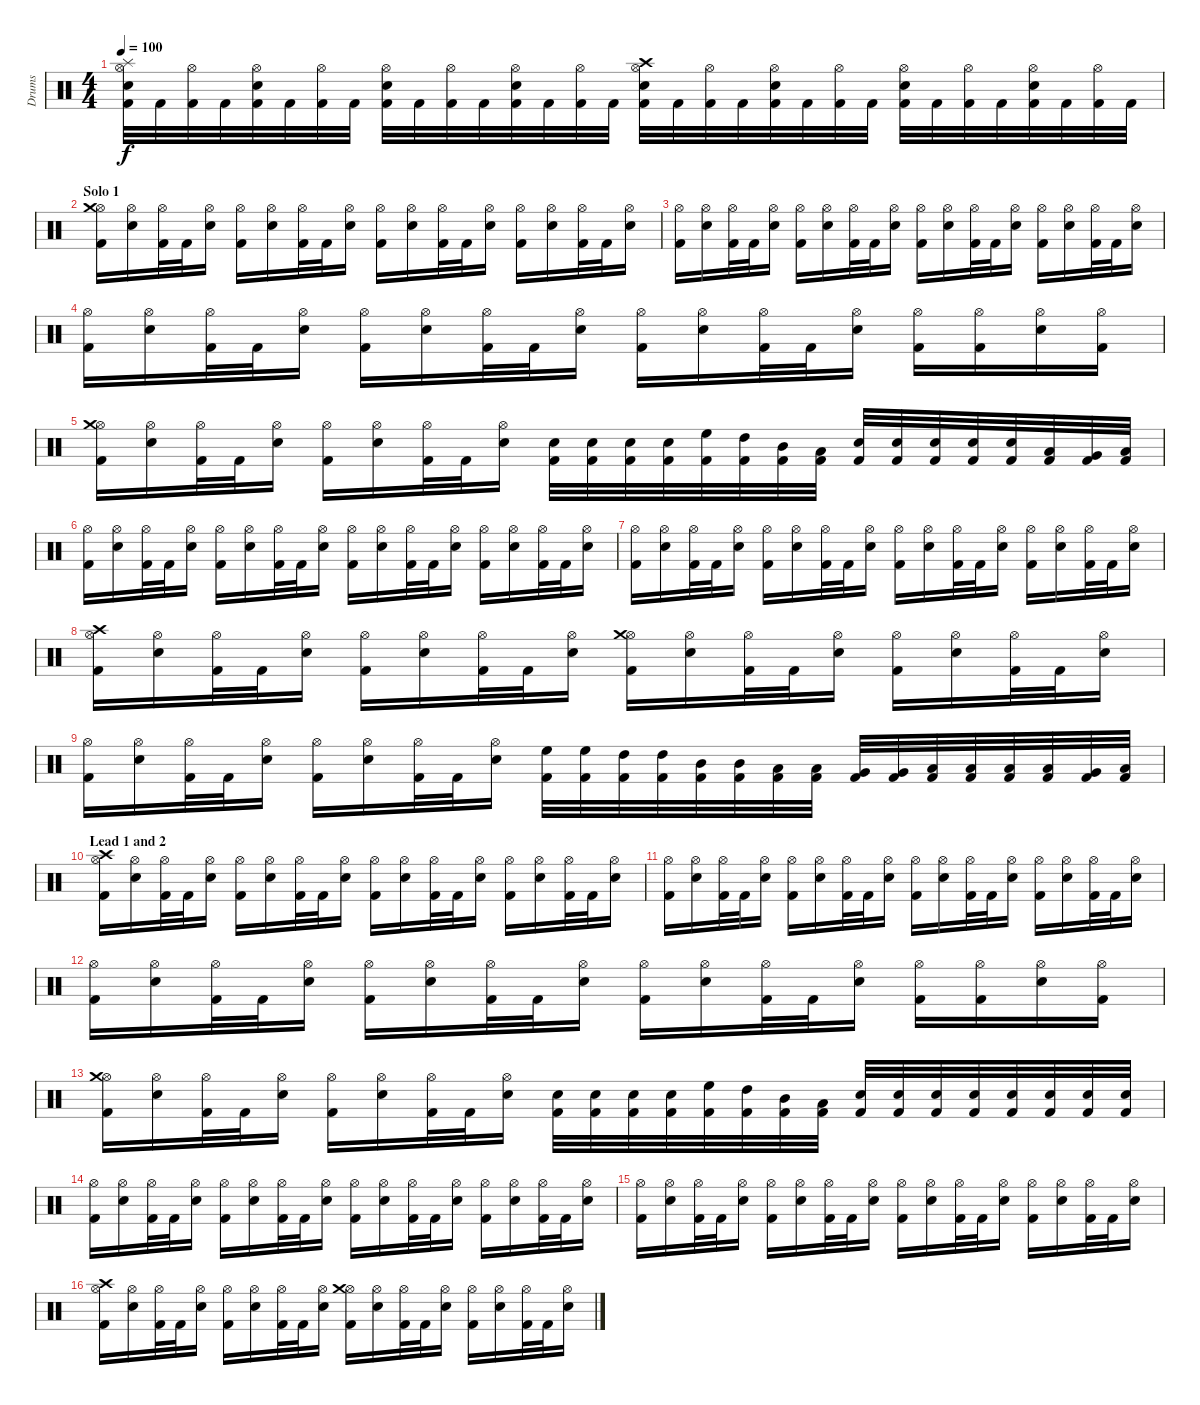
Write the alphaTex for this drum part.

\track ("Drums" "Drums") {instrument percussion}
\staff {score}
\articulation defaults
\ts (4 4)
\tempo 100
\clef neutral
\ks c
("Kick (hit) 2" "Electric Snare (hit)" "Hi-Hat (open)" "Splash (hit)").32{dy f} "Kick (hit) 2".32 ("Kick (hit) 2" "Hi-Hat (open)").32 "Kick (hit) 2".32 ("Kick (hit) 2" "Electric Snare (hit)" "Hi-Hat (open)").32 "Kick (hit) 2".32 ("Kick (hit) 2" "Hi-Hat (open)").32 "Kick (hit) 2".32 ("Kick (hit) 2" "Electric Snare (hit)" "Hi-Hat (open)").32 "Kick (hit) 2".32 ("Kick (hit) 2" "Hi-Hat (open)").32 "Kick (hit) 2".32 ("Kick (hit) 2" "Electric Snare (hit)" "Hi-Hat (open)").32 "Kick (hit) 2".32 ("Kick (hit) 2" "Hi-Hat (open)").32 "Kick (hit) 2".32 ("Kick (hit) 2" "Electric Snare (hit)" "Hi-Hat (open)" "Crash high (hit)").32 "Kick (hit) 2".32 ("Kick (hit) 2" "Hi-Hat (open)").32 "Kick (hit) 2".32 ("Kick (hit) 2" "Electric Snare (hit)" "Hi-Hat (open)").32 "Kick (hit) 2".32 ("Kick (hit) 2" "Hi-Hat (open)").32 "Kick (hit) 2".32 ("Kick (hit) 2" "Electric Snare (hit)" "Hi-Hat (open)").32 "Kick (hit) 2".32 ("Kick (hit) 2" "Hi-Hat (open)").32 "Kick (hit) 2".32 ("Kick (hit) 2" "Electric Snare (hit)" "Hi-Hat (open)").32 "Kick (hit) 2".32 ("Kick (hit) 2" "Hi-Hat (open)").32 "Kick (hit) 2".32 |
\section ("" "Solo 1")
("Kick (hit) 2" "Hi-Hat (open)" "Crash medium (hit)").16 ("Electric Snare (hit)" "Hi-Hat (open)").16 ("Kick (hit) 2" "Hi-Hat (open)").32 "Kick (hit) 2".32 ("Electric Snare (hit)" "Hi-Hat (open)").16 ("Kick (hit) 2" "Hi-Hat (open)").16 ("Electric Snare (hit)" "Hi-Hat (open)").16 ("Kick (hit) 2" "Hi-Hat (open)").32 "Kick (hit) 2".32 ("Electric Snare (hit)" "Hi-Hat (open)").16 ("Kick (hit) 2" "Hi-Hat (open)").16 ("Electric Snare (hit)" "Hi-Hat (open)").16 ("Kick (hit) 2" "Hi-Hat (open)").32 "Kick (hit) 2".32 ("Electric Snare (hit)" "Hi-Hat (open)").16 ("Kick (hit) 2" "Hi-Hat (open)").16 ("Electric Snare (hit)" "Hi-Hat (open)").16 ("Kick (hit) 2" "Hi-Hat (open)").32 "Kick (hit) 2".32 ("Electric Snare (hit)" "Hi-Hat (open)").16 |
("Kick (hit) 2" "Hi-Hat (open)").16 ("Electric Snare (hit)" "Hi-Hat (open)").16 ("Kick (hit) 2" "Hi-Hat (open)").32 "Kick (hit) 2".32 ("Electric Snare (hit)" "Hi-Hat (open)").16 ("Kick (hit) 2" "Hi-Hat (open)").16 ("Electric Snare (hit)" "Hi-Hat (open)").16 ("Kick (hit) 2" "Hi-Hat (open)").32 "Kick (hit) 2".32 ("Electric Snare (hit)" "Hi-Hat (open)").16 ("Kick (hit) 2" "Hi-Hat (open)").16 ("Electric Snare (hit)" "Hi-Hat (open)").16 ("Kick (hit) 2" "Hi-Hat (open)").32 "Kick (hit) 2".32 ("Electric Snare (hit)" "Hi-Hat (open)").16 ("Kick (hit) 2" "Hi-Hat (open)").16 ("Electric Snare (hit)" "Hi-Hat (open)").16 ("Kick (hit) 2" "Hi-Hat (open)").32 "Kick (hit) 2".32 ("Electric Snare (hit)" "Hi-Hat (open)").16 |
("Kick (hit) 2" "Hi-Hat (open)").16 ("Electric Snare (hit)" "Hi-Hat (open)").16 ("Kick (hit) 2" "Hi-Hat (open)").32 "Kick (hit) 2".32 ("Electric Snare (hit)" "Hi-Hat (open)").16 ("Kick (hit) 2" "Hi-Hat (open)").16 ("Electric Snare (hit)" "Hi-Hat (open)").16 ("Kick (hit) 2" "Hi-Hat (open)").32 "Kick (hit) 2".32 ("Electric Snare (hit)" "Hi-Hat (open)").16 ("Kick (hit) 2" "Hi-Hat (open)").16 ("Electric Snare (hit)" "Hi-Hat (open)").16 ("Kick (hit) 2" "Hi-Hat (open)").32 "Kick (hit) 2".32 ("Electric Snare (hit)" "Hi-Hat (open)").16 ("Kick (hit) 2" "Hi-Hat (open)").16 ("Kick (hit) 2" "Hi-Hat (open)").16 ("Electric Snare (hit)" "Hi-Hat (open)").16 ("Kick (hit) 2" "Hi-Hat (open)").16 |
("Kick (hit) 2" "Hi-Hat (open)" "Crash medium (hit)").16 ("Electric Snare (hit)" "Hi-Hat (open)").16 ("Kick (hit) 2" "Hi-Hat (open)").32 "Kick (hit) 2".32 ("Electric Snare (hit)" "Hi-Hat (open)").16 ("Kick (hit) 2" "Hi-Hat (open)").16 ("Electric Snare (hit)" "Hi-Hat (open)").16 ("Kick (hit) 2" "Hi-Hat (open)").32 "Kick (hit) 2".32 ("Electric Snare (hit)" "Hi-Hat (open)").16 ("Kick (hit) 2" "Electric Snare (hit)").32 ("Kick (hit) 2" "Electric Snare (hit)").32 ("Kick (hit) 2" "Electric Snare (hit)").32 ("Kick (hit) 2" "Electric Snare (hit)").32 ("Kick (hit) 2" "High Floor Tom (hit)").32 ("Kick (hit) 2" "High Tom (hit)").32 ("Kick (hit) 2" "Mid Tom (hit)").32 ("Kick (hit) 2" "Low Tom (hit)").32 ("Kick (hit) 2" "Electric Snare (hit)").32 ("Kick (hit) 2" "Electric Snare (hit)").32 ("Kick (hit) 2" "Electric Snare (hit)").32 ("Kick (hit) 2" "Electric Snare (hit)").32 ("Kick (hit) 2" "Electric Snare (hit)").32 ("Kick (hit) 2" "Low Tom (hit)").32 ("Kick (hit) 2" "Very Low Tom (hit)").32 ("Kick (hit) 2" "Low Floor Tom (hit)").32 |
("Kick (hit) 2" "Hi-Hat (open)").16 ("Electric Snare (hit)" "Hi-Hat (open)").16 ("Kick (hit) 2" "Hi-Hat (open)").32 "Kick (hit) 2".32 ("Electric Snare (hit)" "Hi-Hat (open)").16 ("Kick (hit) 2" "Hi-Hat (open)").16 ("Electric Snare (hit)" "Hi-Hat (open)").16 ("Kick (hit) 2" "Hi-Hat (open)").32 "Kick (hit) 2".32 ("Electric Snare (hit)" "Hi-Hat (open)").16 ("Kick (hit) 2" "Hi-Hat (open)").16 ("Electric Snare (hit)" "Hi-Hat (open)").16 ("Kick (hit) 2" "Hi-Hat (open)").32 "Kick (hit) 2".32 ("Electric Snare (hit)" "Hi-Hat (open)").16 ("Kick (hit) 2" "Hi-Hat (open)").16 ("Electric Snare (hit)" "Hi-Hat (open)").16 ("Kick (hit) 2" "Hi-Hat (open)").32 "Kick (hit) 2".32 ("Electric Snare (hit)" "Hi-Hat (open)").16 |
("Kick (hit) 2" "Hi-Hat (open)").16 ("Electric Snare (hit)" "Hi-Hat (open)").16 ("Kick (hit) 2" "Hi-Hat (open)").32 "Kick (hit) 2".32 ("Electric Snare (hit)" "Hi-Hat (open)").16 ("Kick (hit) 2" "Hi-Hat (open)").16 ("Electric Snare (hit)" "Hi-Hat (open)").16 ("Kick (hit) 2" "Hi-Hat (open)").32 "Kick (hit) 2".32 ("Electric Snare (hit)" "Hi-Hat (open)").16 ("Kick (hit) 2" "Hi-Hat (open)").16 ("Electric Snare (hit)" "Hi-Hat (open)").16 ("Kick (hit) 2" "Hi-Hat (open)").32 "Kick (hit) 2".32 ("Electric Snare (hit)" "Hi-Hat (open)").16 ("Kick (hit) 2" "Hi-Hat (open)").16 ("Electric Snare (hit)" "Hi-Hat (open)").16 ("Kick (hit) 2" "Hi-Hat (open)").32 "Kick (hit) 2".32 ("Electric Snare (hit)" "Hi-Hat (open)").16 |
("Kick (hit) 2" "Hi-Hat (open)" "Crash high (hit)").16 ("Electric Snare (hit)" "Hi-Hat (open)").16 ("Kick (hit) 2" "Hi-Hat (open)").32 "Kick (hit) 2".32 ("Electric Snare (hit)" "Hi-Hat (open)").16 ("Kick (hit) 2" "Hi-Hat (open)").16 ("Electric Snare (hit)" "Hi-Hat (open)").16 ("Kick (hit) 2" "Hi-Hat (open)").32 "Kick (hit) 2".32 ("Electric Snare (hit)" "Hi-Hat (open)").16 ("Kick (hit) 2" "Hi-Hat (open)" "Crash medium (hit)").16 ("Electric Snare (hit)" "Hi-Hat (open)").16 ("Kick (hit) 2" "Hi-Hat (open)").32 "Kick (hit) 2".32 ("Electric Snare (hit)" "Hi-Hat (open)").16 ("Kick (hit) 2" "Hi-Hat (open)").16 ("Electric Snare (hit)" "Hi-Hat (open)").16 ("Kick (hit) 2" "Hi-Hat (open)").32 "Kick (hit) 2".32 ("Electric Snare (hit)" "Hi-Hat (open)").16 |
("Kick (hit) 2" "Hi-Hat (open)").16 ("Electric Snare (hit)" "Hi-Hat (open)").16 ("Kick (hit) 2" "Hi-Hat (open)").32 "Kick (hit) 2".32 ("Electric Snare (hit)" "Hi-Hat (open)").16 ("Kick (hit) 2" "Hi-Hat (open)").16 ("Electric Snare (hit)" "Hi-Hat (open)").16 ("Kick (hit) 2" "Hi-Hat (open)").32 "Kick (hit) 2".32 ("Electric Snare (hit)" "Hi-Hat (open)").16 ("Kick (hit) 2" "High Floor Tom (hit)").32 ("Kick (hit) 2" "High Floor Tom (hit)").32 ("Kick (hit) 2" "High Tom (hit)").32 ("Kick (hit) 2" "High Tom (hit)").32 ("Kick (hit) 2" "Mid Tom (hit)").32 ("Kick (hit) 2" "Mid Tom (hit)").32 ("Kick (hit) 2" "Low Tom (hit)").32 ("Kick (hit) 2" "Low Tom (hit)").32 ("Kick (hit) 2" "Very Low Tom (hit)").32 ("Kick (hit) 2" "Very Low Tom (hit)").32 ("Kick (hit) 2" "Low Floor Tom (hit)").32 ("Kick (hit) 2" "Low Floor Tom (hit)").32 ("Kick (hit) 2" "Low Tom (hit)").32 ("Kick (hit) 2" "Low Tom (hit)").32 ("Kick (hit) 2" "Very Low Tom (hit)").32 ("Kick (hit) 2" "Low Floor Tom (hit)").32 |
\section ("" "Lead 1 and 2")
("Kick (hit) 2" "Hi-Hat (open)" "Crash high (hit)").16 ("Electric Snare (hit)" "Hi-Hat (open)").16 ("Kick (hit) 2" "Hi-Hat (open)").32 "Kick (hit) 2".32 ("Electric Snare (hit)" "Hi-Hat (open)").16 ("Kick (hit) 2" "Hi-Hat (open)").16 ("Electric Snare (hit)" "Hi-Hat (open)").16 ("Kick (hit) 2" "Hi-Hat (open)").32 "Kick (hit) 2".32 ("Electric Snare (hit)" "Hi-Hat (open)").16 ("Kick (hit) 2" "Hi-Hat (open)").16 ("Electric Snare (hit)" "Hi-Hat (open)").16 ("Kick (hit) 2" "Hi-Hat (open)").32 "Kick (hit) 2".32 ("Electric Snare (hit)" "Hi-Hat (open)").16 ("Kick (hit) 2" "Hi-Hat (open)").16 ("Electric Snare (hit)" "Hi-Hat (open)").16 ("Kick (hit) 2" "Hi-Hat (open)").32 "Kick (hit) 2".32 ("Electric Snare (hit)" "Hi-Hat (open)").16 |
("Kick (hit) 2" "Hi-Hat (open)").16 ("Electric Snare (hit)" "Hi-Hat (open)").16 ("Kick (hit) 2" "Hi-Hat (open)").32 "Kick (hit) 2".32 ("Electric Snare (hit)" "Hi-Hat (open)").16 ("Kick (hit) 2" "Hi-Hat (open)").16 ("Electric Snare (hit)" "Hi-Hat (open)").16 ("Kick (hit) 2" "Hi-Hat (open)").32 "Kick (hit) 2".32 ("Electric Snare (hit)" "Hi-Hat (open)").16 ("Kick (hit) 2" "Hi-Hat (open)").16 ("Electric Snare (hit)" "Hi-Hat (open)").16 ("Kick (hit) 2" "Hi-Hat (open)").32 "Kick (hit) 2".32 ("Electric Snare (hit)" "Hi-Hat (open)").16 ("Kick (hit) 2" "Hi-Hat (open)").16 ("Electric Snare (hit)" "Hi-Hat (open)").16 ("Kick (hit) 2" "Hi-Hat (open)").32 "Kick (hit) 2".32 ("Electric Snare (hit)" "Hi-Hat (open)").16 |
("Kick (hit) 2" "Hi-Hat (open)").16 ("Electric Snare (hit)" "Hi-Hat (open)").16 ("Kick (hit) 2" "Hi-Hat (open)").32 "Kick (hit) 2".32 ("Electric Snare (hit)" "Hi-Hat (open)").16 ("Kick (hit) 2" "Hi-Hat (open)").16 ("Electric Snare (hit)" "Hi-Hat (open)").16 ("Kick (hit) 2" "Hi-Hat (open)").32 "Kick (hit) 2".32 ("Electric Snare (hit)" "Hi-Hat (open)").16 ("Kick (hit) 2" "Hi-Hat (open)").16 ("Electric Snare (hit)" "Hi-Hat (open)").16 ("Kick (hit) 2" "Hi-Hat (open)").32 "Kick (hit) 2".32 ("Electric Snare (hit)" "Hi-Hat (open)").16 ("Kick (hit) 2" "Hi-Hat (open)").16 ("Kick (hit) 2" "Hi-Hat (open)").16 ("Electric Snare (hit)" "Hi-Hat (open)").16 ("Kick (hit) 2" "Hi-Hat (open)").16 |
("Kick (hit) 2" "Hi-Hat (open)" "Crash medium (hit)").16 ("Electric Snare (hit)" "Hi-Hat (open)").16 ("Kick (hit) 2" "Hi-Hat (open)").32 "Kick (hit) 2".32 ("Electric Snare (hit)" "Hi-Hat (open)").16 ("Kick (hit) 2" "Hi-Hat (open)").16 ("Electric Snare (hit)" "Hi-Hat (open)").16 ("Kick (hit) 2" "Hi-Hat (open)").32 "Kick (hit) 2".32 ("Electric Snare (hit)" "Hi-Hat (open)").16 ("Kick (hit) 2" "Electric Snare (hit)").32 ("Kick (hit) 2" "Electric Snare (hit)").32 ("Kick (hit) 2" "Electric Snare (hit)").32 ("Kick (hit) 2" "Electric Snare (hit)").32 ("Kick (hit) 2" "High Floor Tom (hit)").32 ("Kick (hit) 2" "High Tom (hit)").32 ("Kick (hit) 2" "Mid Tom (hit)").32 ("Kick (hit) 2" "Low Tom (hit)").32 ("Kick (hit) 2" "Electric Snare (hit)").32 ("Kick (hit) 2" "Electric Snare (hit)").32 ("Kick (hit) 2" "Electric Snare (hit)").32 ("Kick (hit) 2" "Electric Snare (hit)").32 ("Kick (hit) 2" "Electric Snare (hit)").32 ("Kick (hit) 2" "Electric Snare (hit)").32 ("Kick (hit) 2" "Electric Snare (hit)").32 ("Kick (hit) 2" "Electric Snare (hit)").32 |
\section ("" "")
("Kick (hit) 2" "Hi-Hat (open)").16 ("Electric Snare (hit)" "Hi-Hat (open)").16 ("Kick (hit) 2" "Hi-Hat (open)").32 "Kick (hit) 2".32 ("Electric Snare (hit)" "Hi-Hat (open)").16 ("Kick (hit) 2" "Hi-Hat (open)").16 ("Electric Snare (hit)" "Hi-Hat (open)").16 ("Kick (hit) 2" "Hi-Hat (open)").32 "Kick (hit) 2".32 ("Electric Snare (hit)" "Hi-Hat (open)").16 ("Kick (hit) 2" "Hi-Hat (open)").16 ("Electric Snare (hit)" "Hi-Hat (open)").16 ("Kick (hit) 2" "Hi-Hat (open)").32 "Kick (hit) 2".32 ("Electric Snare (hit)" "Hi-Hat (open)").16 ("Kick (hit) 2" "Hi-Hat (open)").16 ("Electric Snare (hit)" "Hi-Hat (open)").16 ("Kick (hit) 2" "Hi-Hat (open)").32 "Kick (hit) 2".32 ("Electric Snare (hit)" "Hi-Hat (open)").16 |
("Kick (hit) 2" "Hi-Hat (open)").16 ("Electric Snare (hit)" "Hi-Hat (open)").16 ("Kick (hit) 2" "Hi-Hat (open)").32 "Kick (hit) 2".32 ("Electric Snare (hit)" "Hi-Hat (open)").16 ("Kick (hit) 2" "Hi-Hat (open)").16 ("Electric Snare (hit)" "Hi-Hat (open)").16 ("Kick (hit) 2" "Hi-Hat (open)").32 "Kick (hit) 2".32 ("Electric Snare (hit)" "Hi-Hat (open)").16 ("Kick (hit) 2" "Hi-Hat (open)").16 ("Electric Snare (hit)" "Hi-Hat (open)").16 ("Kick (hit) 2" "Hi-Hat (open)").32 "Kick (hit) 2".32 ("Electric Snare (hit)" "Hi-Hat (open)").16 ("Kick (hit) 2" "Hi-Hat (open)").16 ("Electric Snare (hit)" "Hi-Hat (open)").16 ("Kick (hit) 2" "Hi-Hat (open)").32 "Kick (hit) 2".32 ("Electric Snare (hit)" "Hi-Hat (open)").16 |
("Kick (hit) 2" "Hi-Hat (open)" "Crash high (hit)").16 ("Electric Snare (hit)" "Hi-Hat (open)").16 ("Kick (hit) 2" "Hi-Hat (open)").32 "Kick (hit) 2".32 ("Electric Snare (hit)" "Hi-Hat (open)").16 ("Kick (hit) 2" "Hi-Hat (open)").16 ("Electric Snare (hit)" "Hi-Hat (open)").16 ("Kick (hit) 2" "Hi-Hat (open)").32 "Kick (hit) 2".32 ("Electric Snare (hit)" "Hi-Hat (open)").16 ("Kick (hit) 2" "Hi-Hat (open)" "Crash medium (hit)").16 ("Electric Snare (hit)" "Hi-Hat (open)").16 ("Kick (hit) 2" "Hi-Hat (open)").32 "Kick (hit) 2".32 ("Electric Snare (hit)" "Hi-Hat (open)").16 ("Kick (hit) 2" "Hi-Hat (open)").16 ("Electric Snare (hit)" "Hi-Hat (open)").16 ("Kick (hit) 2" "Hi-Hat (open)").32 "Kick (hit) 2".32 ("Electric Snare (hit)" "Hi-Hat (open)").16
